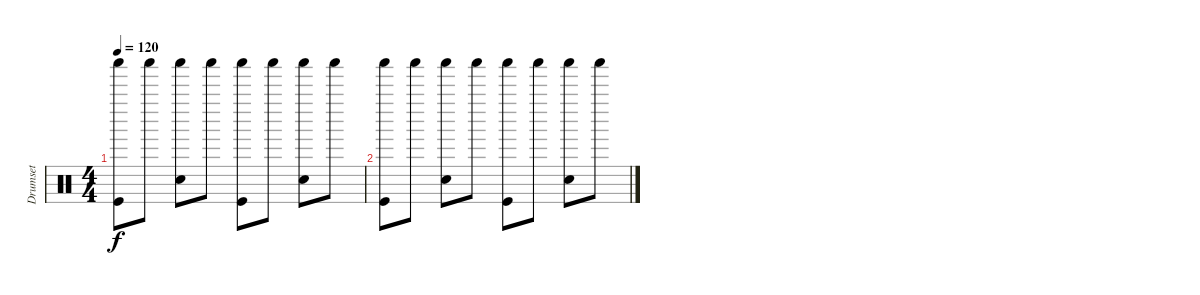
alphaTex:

\track ("Drumset" "Drumset") {instrument percussion}
\staff {score}
\articulation defaults
\ts (4 4)
\tempo 120
\clef neutral
\ks c
("Shaker (hit)" "Kick (hit)").8{dy f} "Shaker (hit)".8 ("Shaker (hit)" "Snare (hit) 2").8 "Shaker (hit)".8 ("Shaker (hit)" "Kick (hit)").8 "Shaker (hit)".8 ("Shaker (hit)" "Snare (hit) 2").8 "Shaker (hit)".8 |
("Shaker (hit)" "Kick (hit)").8 "Shaker (hit)".8 ("Shaker (hit)" "Snare (hit) 2").8 "Shaker (hit)".8 ("Shaker (hit)" "Kick (hit)").8 "Shaker (hit)".8 ("Shaker (hit)" "Snare (hit) 2").8 "Shaker (hit)".8
